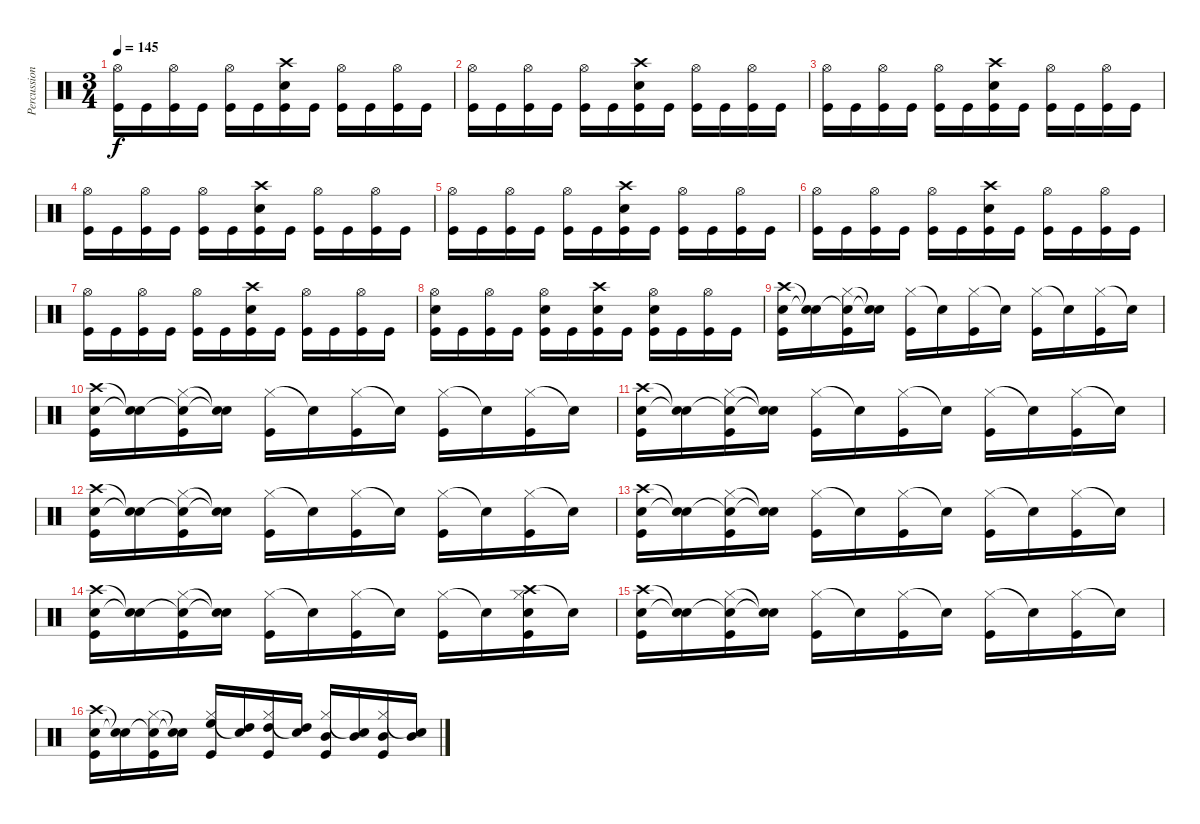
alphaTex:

\track ("Percussion" "Percussion") {instrument percussion}
\staff {score}
\articulation defaults
\ts (3 4)
\tempo 145
\clef neutral
\ks c
("Hi-Hat (open)" "Kick (hit)").16{dy f} "Kick (hit)".16 ("Hi-Hat (open)" "Kick (hit)").16 "Kick (hit)".16 ("Hi-Hat (open)" "Kick (hit)").16 "Kick (hit)".16 ("Crash high (hit)" "Snare (hit) 2" "Kick (hit)").16 "Kick (hit)".16 ("Hi-Hat (open)" "Kick (hit)").16 "Kick (hit)".16 ("Hi-Hat (open)" "Kick (hit)").16 "Kick (hit)".16 |
("Hi-Hat (open)" "Kick (hit)").16 "Kick (hit)".16 ("Hi-Hat (open)" "Kick (hit)").16 "Kick (hit)".16 ("Hi-Hat (open)" "Kick (hit)").16 "Kick (hit)".16 ("Crash high (hit)" "Snare (hit) 2" "Kick (hit)").16 "Kick (hit)".16 ("Hi-Hat (open)" "Kick (hit)").16 "Kick (hit)".16 ("Hi-Hat (open)" "Kick (hit)").16 "Kick (hit)".16 |
("Hi-Hat (open)" "Kick (hit)").16 "Kick (hit)".16 ("Hi-Hat (open)" "Kick (hit)").16 "Kick (hit)".16 ("Hi-Hat (open)" "Kick (hit)").16 "Kick (hit)".16 ("Crash high (hit)" "Snare (hit) 2" "Kick (hit)").16 "Kick (hit)".16 ("Hi-Hat (open)" "Kick (hit)").16 "Kick (hit)".16 ("Hi-Hat (open)" "Kick (hit)").16 "Kick (hit)".16 |
("Hi-Hat (open)" "Kick (hit)").16 "Kick (hit)".16 ("Hi-Hat (open)" "Kick (hit)").16 "Kick (hit)".16 ("Hi-Hat (open)" "Kick (hit)").16 "Kick (hit)".16 ("Crash high (hit)" "Snare (hit) 2" "Kick (hit)").16 "Kick (hit)".16 ("Hi-Hat (open)" "Kick (hit)").16 "Kick (hit)".16 ("Hi-Hat (open)" "Kick (hit)").16 "Kick (hit)".16 |
("Hi-Hat (open)" "Kick (hit)").16 "Kick (hit)".16 ("Hi-Hat (open)" "Kick (hit)").16 "Kick (hit)".16 ("Hi-Hat (open)" "Kick (hit)").16 "Kick (hit)".16 ("Crash high (hit)" "Snare (hit) 2" "Kick (hit)").16 "Kick (hit)".16 ("Hi-Hat (open)" "Kick (hit)").16 "Kick (hit)".16 ("Hi-Hat (open)" "Kick (hit)").16 "Kick (hit)".16 |
("Hi-Hat (open)" "Kick (hit)").16 "Kick (hit)".16 ("Hi-Hat (open)" "Kick (hit)").16 "Kick (hit)".16 ("Hi-Hat (open)" "Kick (hit)").16 "Kick (hit)".16 ("Crash high (hit)" "Snare (hit) 2" "Kick (hit)").16 "Kick (hit)".16 ("Hi-Hat (open)" "Kick (hit)").16 "Kick (hit)".16 ("Hi-Hat (open)" "Kick (hit)").16 "Kick (hit)".16 |
("Hi-Hat (open)" "Kick (hit)").16 "Kick (hit)".16 ("Hi-Hat (open)" "Kick (hit)").16 "Kick (hit)".16 ("Hi-Hat (open)" "Kick (hit)").16 "Kick (hit)".16 ("Crash high (hit)" "Snare (hit) 2" "Kick (hit)").16 "Kick (hit)".16 ("Hi-Hat (open)" "Kick (hit)").16 "Kick (hit)".16 ("Hi-Hat (open)" "Kick (hit)").16 "Kick (hit)".16 |
("Hi-Hat (open)" "Snare (hit) 2" "Kick (hit)").16 "Kick (hit)".16 ("Hi-Hat (open)" "Kick (hit)").16 "Kick (hit)".16 ("Hi-Hat (open)" "Snare (hit) 2" "Kick (hit)").16 "Kick (hit)".16 ("Crash high (hit)" "Snare (hit) 2" "Kick (hit)").16 "Kick (hit)".16 ("Hi-Hat (open)" "Snare (hit) 2" "Kick (hit)").16 "Kick (hit)".16 ("Hi-Hat (open)" "Kick (hit)").16 "Kick (hit)".16 |
("Crash high (hit)" "Electric Snare (hit)" "Kick (hit)").16 ("Snare (hit)"{t} "Snare (hit)"{t}).16 ("Snare (hit)"{t} "Hi-Hat (closed)" "Kick (hit)").16 ("Snare (hit)"{t} "Snare (hit)"{t}).16 ("Hi-Hat (closed)" "Kick (hit)").16 "Snare (hit)"{t}.16 ("Hi-Hat (closed)" "Kick (hit)").16 "Snare (hit)"{t}.16 ("Hi-Hat (closed)" "Kick (hit)").16 "Snare (hit)"{t}.16 ("Hi-Hat (closed)" "Kick (hit)").16 "Snare (hit)"{t}.16 |
("Crash high (hit)" "Electric Snare (hit)" "Kick (hit)").16 ("Snare (hit)"{t} "Snare (hit)"{t}).16 ("Snare (hit)"{t} "Hi-Hat (closed)" "Kick (hit)").16 ("Snare (hit)"{t} "Snare (hit)"{t}).16 ("Hi-Hat (closed)" "Kick (hit)").16 "Snare (hit)"{t}.16 ("Hi-Hat (closed)" "Kick (hit)").16 "Snare (hit)"{t}.16 ("Hi-Hat (closed)" "Kick (hit)").16 "Snare (hit)"{t}.16 ("Hi-Hat (closed)" "Kick (hit)").16 "Snare (hit)"{t}.16 |
("Crash high (hit)" "Electric Snare (hit)" "Kick (hit)").16 ("Snare (hit)"{t} "Snare (hit)"{t}).16 ("Snare (hit)"{t} "Hi-Hat (closed)" "Kick (hit)").16 ("Snare (hit)"{t} "Snare (hit)"{t}).16 ("Hi-Hat (closed)" "Kick (hit)").16 "Snare (hit)"{t}.16 ("Hi-Hat (closed)" "Kick (hit)").16 "Snare (hit)"{t}.16 ("Hi-Hat (closed)" "Kick (hit)").16 "Snare (hit)"{t}.16 ("Hi-Hat (closed)" "Kick (hit)").16 "Snare (hit)"{t}.16 |
("Crash high (hit)" "Electric Snare (hit)" "Kick (hit)").16 ("Snare (hit)"{t} "Snare (hit)"{t}).16 ("Snare (hit)"{t} "Hi-Hat (closed)" "Kick (hit)").16 ("Snare (hit)"{t} "Snare (hit)"{t}).16 ("Hi-Hat (closed)" "Kick (hit)").16 "Snare (hit)"{t}.16 ("Hi-Hat (closed)" "Kick (hit)").16 "Snare (hit)"{t}.16 ("Hi-Hat (closed)" "Kick (hit)").16 "Snare (hit)"{t}.16 ("Hi-Hat (closed)" "Kick (hit)").16 "Snare (hit)"{t}.16 |
("Crash high (hit)" "Electric Snare (hit)" "Kick (hit)").16 ("Snare (hit)"{t} "Snare (hit)"{t}).16 ("Snare (hit)"{t} "Hi-Hat (closed)" "Kick (hit)").16 ("Snare (hit)"{t} "Snare (hit)"{t}).16 ("Hi-Hat (closed)" "Kick (hit)").16 "Snare (hit)"{t}.16 ("Hi-Hat (closed)" "Kick (hit)").16 "Snare (hit)"{t}.16 ("Hi-Hat (closed)" "Kick (hit)").16 "Snare (hit)"{t}.16 ("Hi-Hat (closed)" "Kick (hit)").16 "Snare (hit)"{t}.16 |
("Crash high (hit)" "Electric Snare (hit)" "Kick (hit)").16 ("Snare (hit)"{t} "Snare (hit)"{t}).16 ("Snare (hit)"{t} "Hi-Hat (closed)" "Kick (hit)").16 ("Snare (hit)"{t} "Snare (hit)"{t}).16 ("Hi-Hat (closed)" "Kick (hit)").16 "Snare (hit)"{t}.16 ("Hi-Hat (closed)" "Kick (hit)").16 "Snare (hit)"{t}.16 ("Hi-Hat (closed)" "Kick (hit)").16 "Snare (hit)"{t}.16 ("Crash high (hit)" "Electric Snare (hit)" "Hi-Hat (closed)" "Kick (hit)").16 "Snare (hit)"{t}.16 |
("Crash high (hit)" "Electric Snare (hit)" "Kick (hit)").16 ("Snare (hit)"{t} "Snare (hit)"{t}).16 ("Snare (hit)"{t} "Hi-Hat (closed)" "Kick (hit)").16 ("Snare (hit)"{t} "Snare (hit)"{t}).16 ("Hi-Hat (closed)" "Kick (hit)").16 "Snare (hit)"{t}.16 ("Hi-Hat (closed)" "Kick (hit)").16 "Snare (hit)"{t}.16 ("Hi-Hat (closed)" "Kick (hit)").16 "Snare (hit)"{t}.16 ("Hi-Hat (closed)" "Kick (hit)").16 "Snare (hit)"{t}.16 |
("Crash high (hit)" "Electric Snare (hit)" "Kick (hit)").16 ("Snare (hit)"{t} "Snare (hit)"{t}).16 ("Snare (hit)"{t} "Hi-Hat (closed)" "Kick (hit)").16 ("Snare (hit)"{t} "Snare (hit)"{t}).16 ("High Floor Tom (hit)" "Hi-Hat (closed)" "Kick (hit)").16 ("High Tom (hit)" "Snare (hit)"{t}).16 ("High Tom (hit)" "Hi-Hat (closed)" "Kick (hit)").16 ("High Tom (hit)" "Snare (hit)"{t}).16 ("Mid Tom (hit)" "Hi-Hat (closed)" "Kick (hit)").16 ("Mid Tom (hit)" "Snare (hit)"{t}).16 ("Mid Tom (hit)" "Hi-Hat (closed)" "Kick (hit)").16 ("Mid Tom (hit)" "Snare (hit)"{t}).16
